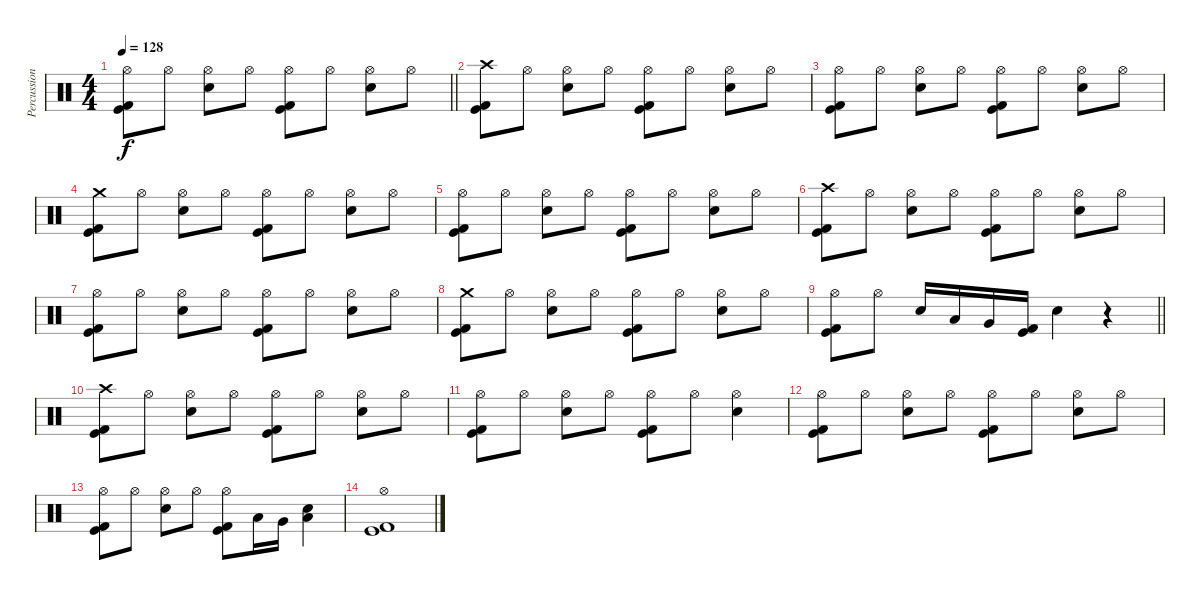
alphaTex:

\track ("Percussion" "Percussion") {instrument percussion}
\staff {score}
\articulation defaults
\ts (4 4)
\tempo 128
\clef neutral
\barLineRight lightlight
\ks c
("Hi-Hat (open)" "Kick (hit)" "Kick (hit) 2").8{dy f} "Hi-Hat (open)".8 ("Hi-Hat (open)" "Electric Snare (hit)").8 "Hi-Hat (open)".8 ("Hi-Hat (open)" "Kick (hit)" "Kick (hit) 2").8 "Hi-Hat (open)".8 ("Hi-Hat (open)" "Electric Snare (hit)").8 "Hi-Hat (open)".8 |
\section ("" "")
("Crash high (hit)" "Kick (hit)" "Kick (hit) 2").8 "Hi-Hat (open)".8 ("Hi-Hat (open)" "Electric Snare (hit)").8 "Hi-Hat (open)".8 ("Hi-Hat (open)" "Kick (hit)" "Kick (hit) 2").8 "Hi-Hat (open)".8 ("Hi-Hat (open)" "Electric Snare (hit)").8 "Hi-Hat (open)".8 |
("Hi-Hat (open)" "Kick (hit)" "Kick (hit) 2").8 "Hi-Hat (open)".8 ("Hi-Hat (open)" "Electric Snare (hit)").8 "Hi-Hat (open)".8 ("Hi-Hat (open)" "Kick (hit)" "Kick (hit) 2").8 "Hi-Hat (open)".8 ("Hi-Hat (open)" "Electric Snare (hit)").8 "Hi-Hat (open)".8 |
("Crash medium (hit)" "Kick (hit)" "Kick (hit) 2").8 "Hi-Hat (open)".8 ("Hi-Hat (open)" "Electric Snare (hit)").8 "Hi-Hat (open)".8 ("Hi-Hat (open)" "Kick (hit)" "Kick (hit) 2").8 "Hi-Hat (open)".8 ("Hi-Hat (open)" "Electric Snare (hit)").8 "Hi-Hat (open)".8 |
("Hi-Hat (open)" "Kick (hit)" "Kick (hit) 2").8 "Hi-Hat (open)".8 ("Hi-Hat (open)" "Electric Snare (hit)").8 "Hi-Hat (open)".8 ("Hi-Hat (open)" "Kick (hit)" "Kick (hit) 2").8 "Hi-Hat (open)".8 ("Hi-Hat (open)" "Electric Snare (hit)").8 "Hi-Hat (open)".8 |
("Crash high (hit)" "Kick (hit)" "Kick (hit) 2").8 "Hi-Hat (open)".8 ("Hi-Hat (open)" "Electric Snare (hit)").8 "Hi-Hat (open)".8 ("Hi-Hat (open)" "Kick (hit)" "Kick (hit) 2").8 "Hi-Hat (open)".8 ("Hi-Hat (open)" "Electric Snare (hit)").8 "Hi-Hat (open)".8 |
("Hi-Hat (open)" "Kick (hit)" "Kick (hit) 2").8 "Hi-Hat (open)".8 ("Hi-Hat (open)" "Electric Snare (hit)").8 "Hi-Hat (open)".8 ("Hi-Hat (open)" "Kick (hit)" "Kick (hit) 2").8 "Hi-Hat (open)".8 ("Hi-Hat (open)" "Electric Snare (hit)").8 "Hi-Hat (open)".8 |
("Crash medium (hit)" "Kick (hit)" "Kick (hit) 2").8 "Hi-Hat (open)".8 ("Hi-Hat (open)" "Electric Snare (hit)").8 "Hi-Hat (open)".8 ("Hi-Hat (open)" "Kick (hit)" "Kick (hit) 2").8 "Hi-Hat (open)".8 ("Hi-Hat (open)" "Electric Snare (hit)").8 "Hi-Hat (open)".8 |
\barLineRight lightlight
("Hi-Hat (open)" "Kick (hit)" "Kick (hit) 2").8 "Hi-Hat (open)".8 "Electric Snare (hit)".16 "Low Tom (hit)".16 "Very Low Tom (hit)".16 ("Kick (hit)" "Kick (hit) 2").16 "Electric Snare (hit)".4 r.4 |
\section ("" "")
("Crash high (hit)" "Kick (hit)" "Kick (hit) 2").8 "Hi-Hat (open)".8 ("Hi-Hat (open)" "Electric Snare (hit)").8 "Hi-Hat (open)".8 ("Hi-Hat (open)" "Kick (hit)" "Kick (hit) 2").8 "Hi-Hat (open)".8 ("Hi-Hat (open)" "Electric Snare (hit)").8 "Hi-Hat (open)".8 |
("Hi-Hat (open)" "Kick (hit)" "Kick (hit) 2").8 "Hi-Hat (open)".8 ("Hi-Hat (open)" "Electric Snare (hit)").8 "Hi-Hat (open)".8 ("Hi-Hat (open)" "Kick (hit)" "Kick (hit) 2").8 "Hi-Hat (open)".8 ("Hi-Hat (open)" "Electric Snare (hit)").4 |
("Hi-Hat (open)" "Kick (hit)" "Kick (hit) 2").8 "Hi-Hat (open)".8 ("Hi-Hat (open)" "Electric Snare (hit)").8 "Hi-Hat (open)".8 ("Hi-Hat (open)" "Kick (hit)" "Kick (hit) 2").8 "Hi-Hat (open)".8 ("Hi-Hat (open)" "Electric Snare (hit)").8 "Hi-Hat (open)".8 |
("Hi-Hat (open)" "Kick (hit)" "Kick (hit) 2").8 "Hi-Hat (open)".8 ("Hi-Hat (open)" "Electric Snare (hit)").8 "Hi-Hat (open)".8 ("Hi-Hat (open)" "Kick (hit)" "Kick (hit) 2").8 "Low Tom (hit)".16 "Very Low Tom (hit)".16 ("Electric Snare (hit)" "Low Floor Tom (hit)").4 |
("Hi-Hat (open)" "Kick (hit)" "Kick (hit) 2").1
